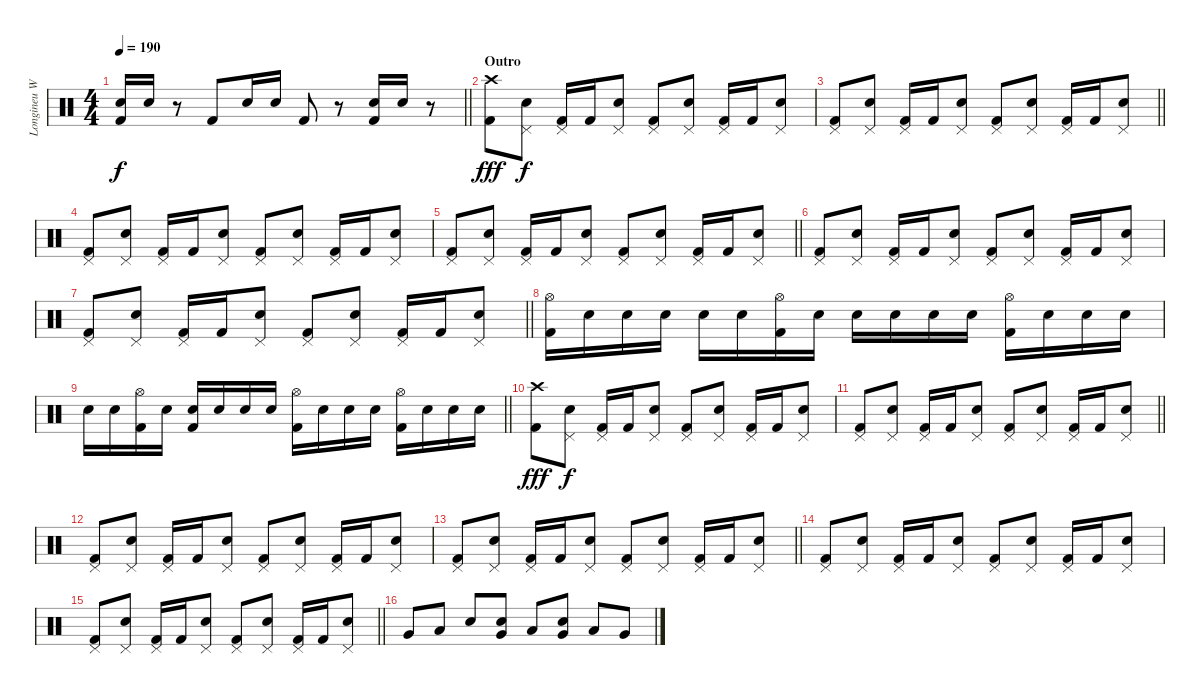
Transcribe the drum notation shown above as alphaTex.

\track ("Longineu W. Parsons III" "Longineu W") {instrument percussion}
\staff {score}
\articulation defaults
\ts (4 4)
\tempo 190
\clef neutral
\barLineRight lightlight
\ks c
("Electric Snare (hit)" "Kick (hit) 2").16{dy f} "Electric Snare (hit)".16 r.8 "Kick (hit) 2".8 "Electric Snare (hit)".16 "Electric Snare (hit)".16 "Kick (hit) 2".8 r.8 ("Electric Snare (hit)" "Kick (hit) 2").16 "Electric Snare (hit)".16 r.8 |
\section ("" "Outro")
("Crash high (hit)" "Kick (hit) 2").8{dy fff} ("Pedal Hi-Hat (hit)" "Electric Snare (hit)").8{dy f} ("Pedal Hi-Hat (hit)" "Kick (hit) 2").16 "Kick (hit) 2".16 ("Pedal Hi-Hat (hit)" "Electric Snare (hit)").8 ("Pedal Hi-Hat (hit)" "Kick (hit) 2").8 ("Pedal Hi-Hat (hit)" "Electric Snare (hit)").8 ("Pedal Hi-Hat (hit)" "Kick (hit) 2").16 "Kick (hit) 2".16 ("Pedal Hi-Hat (hit)" "Electric Snare (hit)").8 |
\barLineRight lightlight
("Pedal Hi-Hat (hit)" "Kick (hit) 2").8 ("Pedal Hi-Hat (hit)" "Electric Snare (hit)").8 ("Pedal Hi-Hat (hit)" "Kick (hit) 2").16 "Kick (hit) 2".16 ("Pedal Hi-Hat (hit)" "Electric Snare (hit)").8 ("Pedal Hi-Hat (hit)" "Kick (hit) 2").8 ("Pedal Hi-Hat (hit)" "Electric Snare (hit)").8 ("Pedal Hi-Hat (hit)" "Kick (hit) 2").16 "Kick (hit) 2".16 ("Pedal Hi-Hat (hit)" "Electric Snare (hit)").8 |
("Pedal Hi-Hat (hit)" "Kick (hit) 2").8 ("Pedal Hi-Hat (hit)" "Electric Snare (hit)").8 ("Pedal Hi-Hat (hit)" "Kick (hit) 2").16 "Kick (hit) 2".16 ("Pedal Hi-Hat (hit)" "Electric Snare (hit)").8 ("Pedal Hi-Hat (hit)" "Kick (hit) 2").8 ("Pedal Hi-Hat (hit)" "Electric Snare (hit)").8 ("Pedal Hi-Hat (hit)" "Kick (hit) 2").16 "Kick (hit) 2".16 ("Pedal Hi-Hat (hit)" "Electric Snare (hit)").8 |
\barLineRight lightlight
("Pedal Hi-Hat (hit)" "Kick (hit) 2").8 ("Pedal Hi-Hat (hit)" "Electric Snare (hit)").8 ("Pedal Hi-Hat (hit)" "Kick (hit) 2").16 "Kick (hit) 2".16 ("Pedal Hi-Hat (hit)" "Electric Snare (hit)").8 ("Pedal Hi-Hat (hit)" "Kick (hit) 2").8 ("Pedal Hi-Hat (hit)" "Electric Snare (hit)").8 ("Pedal Hi-Hat (hit)" "Kick (hit) 2").16 "Kick (hit) 2".16 ("Pedal Hi-Hat (hit)" "Electric Snare (hit)").8 |
("Pedal Hi-Hat (hit)" "Kick (hit) 2").8 ("Pedal Hi-Hat (hit)" "Electric Snare (hit)").8 ("Pedal Hi-Hat (hit)" "Kick (hit) 2").16 "Kick (hit) 2".16 ("Pedal Hi-Hat (hit)" "Electric Snare (hit)").8 ("Pedal Hi-Hat (hit)" "Kick (hit) 2").8 ("Pedal Hi-Hat (hit)" "Electric Snare (hit)").8 ("Pedal Hi-Hat (hit)" "Kick (hit) 2").16 "Kick (hit) 2".16 ("Pedal Hi-Hat (hit)" "Electric Snare (hit)").8 |
\barLineRight lightlight
("Pedal Hi-Hat (hit)" "Kick (hit) 2").8 ("Pedal Hi-Hat (hit)" "Electric Snare (hit)").8 ("Pedal Hi-Hat (hit)" "Kick (hit) 2").16 "Kick (hit) 2".16 ("Pedal Hi-Hat (hit)" "Electric Snare (hit)").8 ("Pedal Hi-Hat (hit)" "Kick (hit) 2").8 ("Pedal Hi-Hat (hit)" "Electric Snare (hit)").8 ("Pedal Hi-Hat (hit)" "Kick (hit) 2").16 "Kick (hit) 2".16 ("Pedal Hi-Hat (hit)" "Electric Snare (hit)").8 |
("Hi-Hat (open)" "Kick (hit) 2").16 "Electric Snare (hit)".16 "Electric Snare (hit)".16 "Electric Snare (hit)".16 "Electric Snare (hit)".16 "Electric Snare (hit)".16 ("Hi-Hat (open)" "Kick (hit) 2").16 "Electric Snare (hit)".16 "Electric Snare (hit)".16 "Electric Snare (hit)".16 "Electric Snare (hit)".16 "Electric Snare (hit)".16 ("Hi-Hat (open)" "Kick (hit) 2").16 "Electric Snare (hit)".16 "Electric Snare (hit)".16 "Electric Snare (hit)".16 |
\barLineRight lightlight "Electric Snare (hit)".16 "Electric Snare (hit)".16
("Hi-Hat (open)" "Kick (hit) 2").16 "Electric Snare (hit)".16 ("Electric Snare (hit)" "Kick (hit) 2").16 "Electric Snare (hit)".16 "Electric Snare (hit)".16 "Electric Snare (hit)".16 ("Hi-Hat (open)" "Kick (hit) 2").16 "Electric Snare (hit)".16 "Electric Snare (hit)".16 "Electric Snare (hit)".16 ("Hi-Hat (open)" "Kick (hit) 2").16 "Electric Snare (hit)".16 "Electric Snare (hit)".16 "Electric Snare (hit)".16 |
("Crash high (hit)" "Kick (hit) 2").8{dy fff} ("Pedal Hi-Hat (hit)" "Electric Snare (hit)").8{dy f} ("Pedal Hi-Hat (hit)" "Kick (hit) 2").16 "Kick (hit) 2".16 ("Pedal Hi-Hat (hit)" "Electric Snare (hit)").8 ("Pedal Hi-Hat (hit)" "Kick (hit) 2").8 ("Pedal Hi-Hat (hit)" "Electric Snare (hit)").8 ("Pedal Hi-Hat (hit)" "Kick (hit) 2").16 "Kick (hit) 2".16 ("Pedal Hi-Hat (hit)" "Electric Snare (hit)").8 |
\barLineRight lightlight
("Pedal Hi-Hat (hit)" "Kick (hit) 2").8 ("Pedal Hi-Hat (hit)" "Electric Snare (hit)").8 ("Pedal Hi-Hat (hit)" "Kick (hit) 2").16 "Kick (hit) 2".16 ("Pedal Hi-Hat (hit)" "Electric Snare (hit)").8 ("Pedal Hi-Hat (hit)" "Kick (hit) 2").8 ("Pedal Hi-Hat (hit)" "Electric Snare (hit)").8 ("Pedal Hi-Hat (hit)" "Kick (hit) 2").16 "Kick (hit) 2".16 ("Pedal Hi-Hat (hit)" "Electric Snare (hit)").8 |
("Pedal Hi-Hat (hit)" "Kick (hit) 2").8 ("Pedal Hi-Hat (hit)" "Electric Snare (hit)").8 ("Pedal Hi-Hat (hit)" "Kick (hit) 2").16 "Kick (hit) 2".16 ("Pedal Hi-Hat (hit)" "Electric Snare (hit)").8 ("Pedal Hi-Hat (hit)" "Kick (hit) 2").8 ("Pedal Hi-Hat (hit)" "Electric Snare (hit)").8 ("Pedal Hi-Hat (hit)" "Kick (hit) 2").16 "Kick (hit) 2".16 ("Pedal Hi-Hat (hit)" "Electric Snare (hit)").8 |
\barLineRight lightlight
("Pedal Hi-Hat (hit)" "Kick (hit) 2").8 ("Pedal Hi-Hat (hit)" "Electric Snare (hit)").8 ("Pedal Hi-Hat (hit)" "Kick (hit) 2").16 "Kick (hit) 2".16 ("Pedal Hi-Hat (hit)" "Electric Snare (hit)").8 ("Pedal Hi-Hat (hit)" "Kick (hit) 2").8 ("Pedal Hi-Hat (hit)" "Electric Snare (hit)").8 ("Pedal Hi-Hat (hit)" "Kick (hit) 2").16 "Kick (hit) 2".16 ("Pedal Hi-Hat (hit)" "Electric Snare (hit)").8 |
("Pedal Hi-Hat (hit)" "Kick (hit) 2").8 ("Pedal Hi-Hat (hit)" "Electric Snare (hit)").8 ("Pedal Hi-Hat (hit)" "Kick (hit) 2").16 "Kick (hit) 2".16 ("Pedal Hi-Hat (hit)" "Electric Snare (hit)").8 ("Pedal Hi-Hat (hit)" "Kick (hit) 2").8 ("Pedal Hi-Hat (hit)" "Electric Snare (hit)").8 ("Pedal Hi-Hat (hit)" "Kick (hit) 2").16 "Kick (hit) 2".16 ("Pedal Hi-Hat (hit)" "Electric Snare (hit)").8 |
\barLineRight lightlight
("Pedal Hi-Hat (hit)" "Kick (hit) 2").8 ("Pedal Hi-Hat (hit)" "Electric Snare (hit)").8 ("Pedal Hi-Hat (hit)" "Kick (hit) 2").16 "Kick (hit) 2".16 ("Pedal Hi-Hat (hit)" "Electric Snare (hit)").8 ("Pedal Hi-Hat (hit)" "Kick (hit) 2").8 ("Pedal Hi-Hat (hit)" "Electric Snare (hit)").8 ("Pedal Hi-Hat (hit)" "Kick (hit) 2").16 "Kick (hit) 2".16 ("Pedal Hi-Hat (hit)" "Electric Snare (hit)").8 |
"Very Low Tom (hit)".8 "Low Tom (hit)".8 "Electric Snare (hit)".8 ("Very Low Tom (hit)" "Electric Snare (hit)").8 "Low Tom (hit)".8 ("Very Low Tom (hit)" "Electric Snare (hit)").8 "Low Tom (hit)".8 "Very Low Tom (hit)".8
